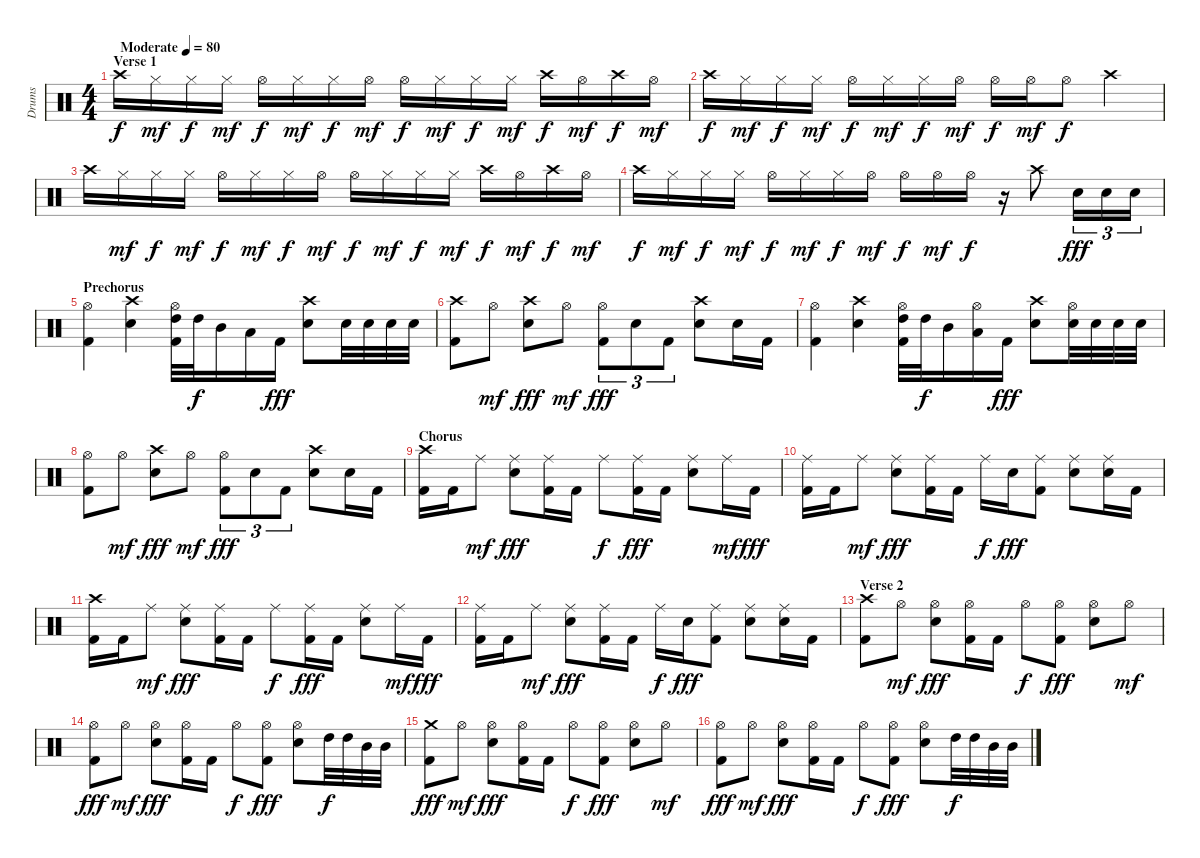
\track ("Drums" "Drums") {instrument percussion}
\staff {score}
\articulation defaults
\ts (4 4)
\section ("" "Verse 1")
\tempo (80 "Moderate")
\clef neutral
\ks c "Crash high (hit)".16{dy f} "Hi-Hat (closed)".16{dy mf} "Hi-Hat (closed)".16{dy f} "Hi-Hat (closed)".16{dy mf} "Hi-Hat (open)".16{dy f} "Hi-Hat (closed)".16{dy mf} "Hi-Hat (closed)".16{dy f} "Hi-Hat (open)".16{dy mf} "Hi-Hat (open)".16{dy f} "Hi-Hat (closed)".16{dy mf} "Hi-Hat (closed)".16{dy f} "Hi-Hat (closed)".16{dy mf} "Crash high (hit)".16{dy f} "Hi-Hat (open)".16{dy mf} "Crash high (hit)".16{dy f} "Hi-Hat (open)".16{dy mf}
|
"Crash high (hit)".16{dy f} "Hi-Hat (closed)".16{dy mf} "Hi-Hat (closed)".16{dy f} "Hi-Hat (closed)".16{dy mf} "Hi-Hat (open)".16{dy f} "Hi-Hat (closed)".16{dy mf} "Hi-Hat (closed)".16{dy f} "Hi-Hat (open)".16{dy mf} "Hi-Hat (open)".16{dy f} "Hi-Hat (open)".16{dy mf} "Hi-Hat (open)".8{dy f} "Crash high (hit)".4 |
"Crash high (hit)".16 "Hi-Hat (closed)".16{dy mf} "Hi-Hat (closed)".16{dy f} "Hi-Hat (closed)".16{dy mf} "Hi-Hat (open)".16{dy f} "Hi-Hat (closed)".16{dy mf} "Hi-Hat (closed)".16{dy f} "Hi-Hat (open)".16{dy mf} "Hi-Hat (open)".16{dy f} "Hi-Hat (closed)".16{dy mf} "Hi-Hat (closed)".16{dy f} "Hi-Hat (closed)".16{dy mf} "Crash high (hit)".16{dy f} "Hi-Hat (open)".16{dy mf} "Crash high (hit)".16{dy f} "Hi-Hat (open)".16{dy mf} |
"Crash high (hit)".16{dy f} "Hi-Hat (closed)".16{dy mf} "Hi-Hat (closed)".16{dy f} "Hi-Hat (closed)".16{dy mf} "Hi-Hat (open)".16{dy f} "Hi-Hat (closed)".16{dy mf} "Hi-Hat (closed)".16{dy f} "Hi-Hat (open)".16{dy mf} "Hi-Hat (open)".16{dy f} "Hi-Hat (open)".16{dy mf} "Hi-Hat (open)".16{dy f} r.16 "Crash high (hit)".8 "Snare (hit) 2".16{tu (3 2) dy fff} "Snare (hit) 2".16{tu (3 2)} "Snare (hit) 2".16{tu (3 2)} |
\section ("" "Prechorus")
("Hi-Hat (open)" "Kick (hit) 2").4 ("Crash high (hit)" "Snare (hit) 2").4 ("Hi-Hat (open)" "High Tom (hit)" "Kick (hit) 2").32 "High Tom (hit)".32{dy f} "Mid Tom (hit)".16 "Low Tom (hit)".16 "Kick (hit) 2".16{dy fff} ("Crash high (hit)" "Snare (hit) 2").8 "Snare (hit) 2".32 "Snare (hit) 2".32 "Snare (hit) 2".32 "Snare (hit) 2".32 |
("Crash high (hit)" "Kick (hit) 2").8 "Hi-Hat (open)".8{dy mf} ("Crash high (hit)" "Snare (hit) 2").8{dy fff} "Hi-Hat (open)".8{dy mf} ("Hi-Hat (open)" "Kick (hit) 2").8{tu (3 2) dy fff} "Snare (hit) 2".8{tu (3 2)} "Kick (hit) 2".8{tu (3 2)} ("Crash high (hit)" "Snare (hit) 2").8 "Snare (hit) 2".16 "Kick (hit) 2".16 |
("Hi-Hat (open)" "Kick (hit) 2").4 ("Crash high (hit)" "Snare (hit) 2").4 ("Hi-Hat (open)" "High Tom (hit)" "Kick (hit) 2").32 "High Tom (hit)".32{dy f} "Mid Tom (hit)".16 ("Hi-Hat (open)" "Low Tom (hit)").16 "Kick (hit) 2".16{dy fff} ("Crash high (hit)" "Snare (hit) 2").8 ("Hi-Hat (open)" "Snare (hit) 2").32 "Snare (hit) 2".32 "Snare (hit) 2".32 "Snare (hit) 2".32 |
("Hi-Hat (open)" "Kick (hit) 2").8 "Hi-Hat (open)".8{dy mf} ("Crash high (hit)" "Snare (hit) 2").8{dy fff} "Hi-Hat (open)".8{dy mf} ("Hi-Hat (open)" "Kick (hit) 2").8{tu (3 2) dy fff} "Snare (hit) 2".8{tu (3 2)} "Kick (hit) 2".8{tu (3 2)} ("Crash high (hit)" "Snare (hit) 2").8 "Snare (hit) 2".16 "Kick (hit) 2".16 |
\section ("" "Chorus")
("Crash high (hit)" "Kick (hit) 2").16 "Kick (hit) 2".16 "Ride (middle)".8{dy mf} ("Ride (middle)" "Snare (hit) 2").8{dy fff} ("Ride (middle)" "Kick (hit) 2").16 "Kick (hit) 2".16 "Ride (middle)".8{dy f} ("Ride (middle)" "Kick (hit) 2").16{dy fff} "Kick (hit) 2".16 ("Ride (middle)" "Snare (hit) 2").8 "Ride (middle)".16{dy mf} "Kick (hit) 2".16{dy fff} |
("Ride (middle)" "Kick (hit) 2").16 "Kick (hit) 2".16 "Ride (middle)".8{dy mf} ("Ride (middle)" "Snare (hit) 2").8{dy fff} ("Ride (middle)" "Kick (hit) 2").16 "Kick (hit) 2".16 "Ride (middle)".16{dy f} "Snare (hit) 2".16{dy fff} ("Ride (middle)" "Kick (hit) 2").8 ("Ride (middle)" "Snare (hit) 2").8 ("Ride (middle)" "Snare (hit) 2").16 "Kick (hit) 2".16 |
("Crash high (hit)" "Kick (hit) 2").16 "Kick (hit) 2".16 "Ride (middle)".8{dy mf} ("Ride (middle)" "Snare (hit) 2").8{dy fff} ("Ride (middle)" "Kick (hit) 2").16 "Kick (hit) 2".16 "Ride (middle)".8{dy f} ("Ride (middle)" "Kick (hit) 2").16{dy fff} "Kick (hit) 2".16 ("Ride (middle)" "Snare (hit) 2").8 "Ride (middle)".16{dy mf} "Kick (hit) 2".16{dy fff} |
("Ride (middle)" "Kick (hit) 2").16 "Kick (hit) 2".16 "Ride (middle)".8{dy mf} ("Ride (middle)" "Snare (hit) 2").8{dy fff} ("Ride (middle)" "Kick (hit) 2").16 "Kick (hit) 2".16 "Ride (middle)".16{dy f} "Snare (hit) 2".16{dy fff} ("Ride (middle)" "Kick (hit) 2").8 ("Ride (middle)" "Snare (hit) 2").8 ("Ride (middle)" "Snare (hit) 2").16 "Kick (hit) 2".16 |
\section ("" "Verse 2")
("Crash high (hit)" "Kick (hit) 2").8 "Hi-Hat (open)".8{dy mf} ("Hi-Hat (open)" "Snare (hit) 2").8{dy fff} ("Hi-Hat (open)" "Kick (hit) 2").16 "Kick (hit) 2".16 "Hi-Hat (open)".8{dy f} ("Hi-Hat (open)" "Kick (hit) 2").8{dy fff} ("Hi-Hat (open)" "Snare (hit) 2").8 "Hi-Hat (open)".8{dy mf} |
("Hi-Hat (open)" "Kick (hit) 2").8{dy fff} "Hi-Hat (open)".8{dy mf} ("Hi-Hat (open)" "Snare (hit) 2").8{dy fff} ("Hi-Hat (open)" "Kick (hit) 2").16 "Kick (hit) 2".16 "Hi-Hat (open)".8{dy f} ("Hi-Hat (open)" "Kick (hit) 2").8{dy fff} ("Hi-Hat (open)" "Snare (hit) 2").8 "High Tom (hit)".32{dy f} "High Tom (hit)".32 "Mid Tom (hit)".32 "Mid Tom (hit)".32 |
("Crash medium (hit)" "Kick (hit) 2").8{dy fff} "Hi-Hat (open)".8{dy mf} ("Hi-Hat (open)" "Snare (hit) 2").8{dy fff} ("Hi-Hat (open)" "Kick (hit) 2").16 "Kick (hit) 2".16 "Hi-Hat (open)".8{dy f} ("Hi-Hat (open)" "Kick (hit) 2").8{dy fff} ("Hi-Hat (open)" "Snare (hit) 2").8 "Hi-Hat (open)".8{dy mf} |
("Hi-Hat (open)" "Kick (hit) 2").8{dy fff} "Hi-Hat (open)".8{dy mf} ("Hi-Hat (open)" "Snare (hit) 2").8{dy fff} ("Hi-Hat (open)" "Kick (hit) 2").16 "Kick (hit) 2".16 "Hi-Hat (open)".8{dy f} ("Hi-Hat (open)" "Kick (hit) 2").8{dy fff} ("Hi-Hat (open)" "Snare (hit) 2").8 "High Tom (hit)".32{dy f} "High Tom (hit)".32 "Mid Tom (hit)".32 "Mid Tom (hit)".32
